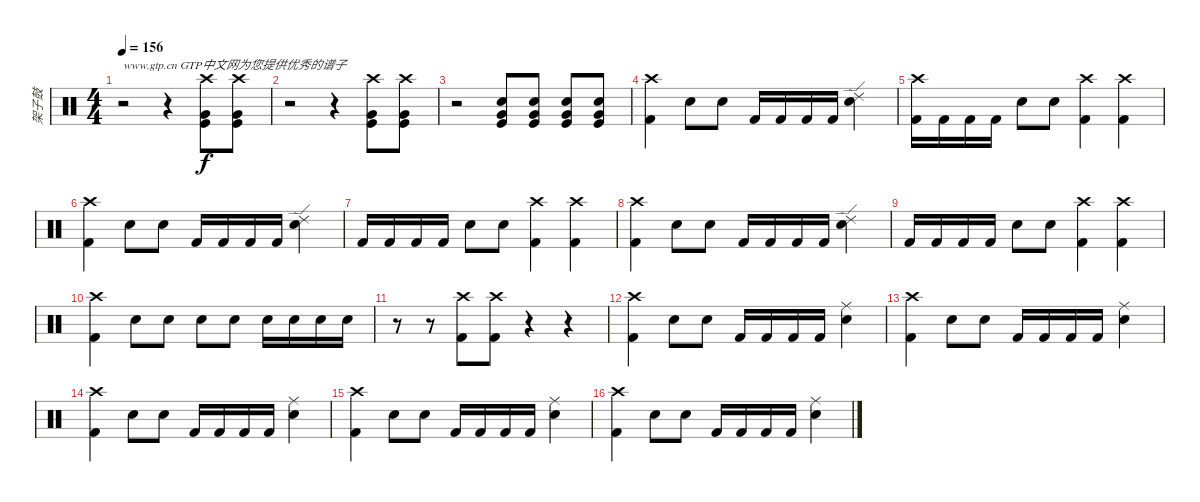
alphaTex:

\track ("架子鼓" "架子鼓") {instrument percussion}
\staff {score}
\articulation defaults
\ts (4 4)
\tempo 156
\clef neutral
\ks c
r.2{txt "www.gtp.cn GTP中文网为您提供优秀的谱子" dy f} r.4 ("Crash high (hit)" "Kick (hit)" "Very Low Tom (hit)").8 ("Crash high (hit)" "Kick (hit)" "Very Low Tom (hit)").8 |
r.2 r.4 ("Crash high (hit)" "Kick (hit)" "Very Low Tom (hit)").8 ("Crash high (hit)" "Kick (hit)" "Very Low Tom (hit)").8 |
r.2 ("Snare (hit) 2" "Very Low Tom (hit)" "Kick (hit)").8 ("Snare (hit) 2" "Very Low Tom (hit)" "Kick (hit)").8 ("Snare (hit) 2" "Very Low Tom (hit)" "Kick (hit)").8 ("Snare (hit) 2" "Very Low Tom (hit)" "Kick (hit)").8 |
("Kick (hit) 2" "Crash high (hit)").4 "Snare (hit) 2".8 "Snare (hit) 2".8 "Kick (hit) 2".16 "Kick (hit) 2".16 "Kick (hit) 2".16 "Kick (hit) 2".16 ("Electric Snare (hit)" "Ride (edge) 2").4 |
("Kick (hit) 2" "Crash high (hit)").16 "Kick (hit) 2".16 "Kick (hit) 2".16 "Kick (hit) 2".16 "Snare (hit) 2".8 "Snare (hit) 2".8 ("Kick (hit) 2" "Crash high (hit)").4 ("Kick (hit) 2" "Crash high (hit)").4 |
("Kick (hit) 2" "Crash high (hit)").4 "Snare (hit) 2".8 "Snare (hit) 2".8 "Kick (hit) 2".16 "Kick (hit) 2".16 "Kick (hit) 2".16 "Kick (hit) 2".16 ("Electric Snare (hit)" "Ride (edge) 2").4 |
"Kick (hit) 2".16 "Kick (hit) 2".16 "Kick (hit) 2".16 "Kick (hit) 2".16 "Snare (hit) 2".8 "Snare (hit) 2".8 ("Kick (hit) 2" "Crash high (hit)").4 ("Kick (hit) 2" "Crash high (hit)").4 |
("Kick (hit) 2" "Crash high (hit)").4 "Snare (hit) 2".8 "Snare (hit) 2".8 "Kick (hit) 2".16 "Kick (hit) 2".16 "Kick (hit) 2".16 "Kick (hit) 2".16 ("Electric Snare (hit)" "Ride (edge) 2").4 |
"Kick (hit) 2".16 "Kick (hit) 2".16 "Kick (hit) 2".16 "Kick (hit) 2".16 "Snare (hit) 2".8 "Snare (hit) 2".8 ("Kick (hit) 2" "Crash high (hit)").4 ("Kick (hit) 2" "Crash high (hit)").4 |
("Kick (hit) 2" "Crash high (hit)").4 "Snare (hit) 2".8 "Snare (hit) 2".8 "Snare (hit) 2".8 "Snare (hit) 2".8 "Electric Snare (hit)".16 "Electric Snare (hit)".16 "Electric Snare (hit)".16 "Electric Snare (hit)".16 |
r.8 r.8 ("Kick (hit) 2" "Crash high (hit)").8 ("Kick (hit) 2" "Crash high (hit)").8 r.4 r.4 |
("Kick (hit) 2" "Crash high (hit)").4 "Snare (hit) 2".8 "Snare (hit) 2".8 "Kick (hit) 2".16 "Kick (hit) 2".16 "Kick (hit) 2".16 "Kick (hit) 2".16 ("Electric Snare (hit)" "Ride (middle)").4 |
("Kick (hit) 2" "Crash high (hit)").4 "Snare (hit) 2".8 "Snare (hit) 2".8 "Kick (hit) 2".16 "Kick (hit) 2".16 "Kick (hit) 2".16 "Kick (hit) 2".16 ("Electric Snare (hit)" "Ride (middle)").4 |
("Kick (hit) 2" "Crash high (hit)").4 "Snare (hit) 2".8 "Snare (hit) 2".8 "Kick (hit) 2".16 "Kick (hit) 2".16 "Kick (hit) 2".16 "Kick (hit) 2".16 ("Electric Snare (hit)" "Ride (middle)").4 |
("Kick (hit) 2" "Crash high (hit)").4 "Snare (hit) 2".8 "Snare (hit) 2".8 "Kick (hit) 2".16 "Kick (hit) 2".16 "Kick (hit) 2".16 "Kick (hit) 2".16 ("Electric Snare (hit)" "Ride (middle)").4 |
("Kick (hit) 2" "Crash high (hit)").4 "Snare (hit) 2".8 "Snare (hit) 2".8 "Kick (hit) 2".16 "Kick (hit) 2".16 "Kick (hit) 2".16 "Kick (hit) 2".16 ("Electric Snare (hit)" "Ride (middle)").4
